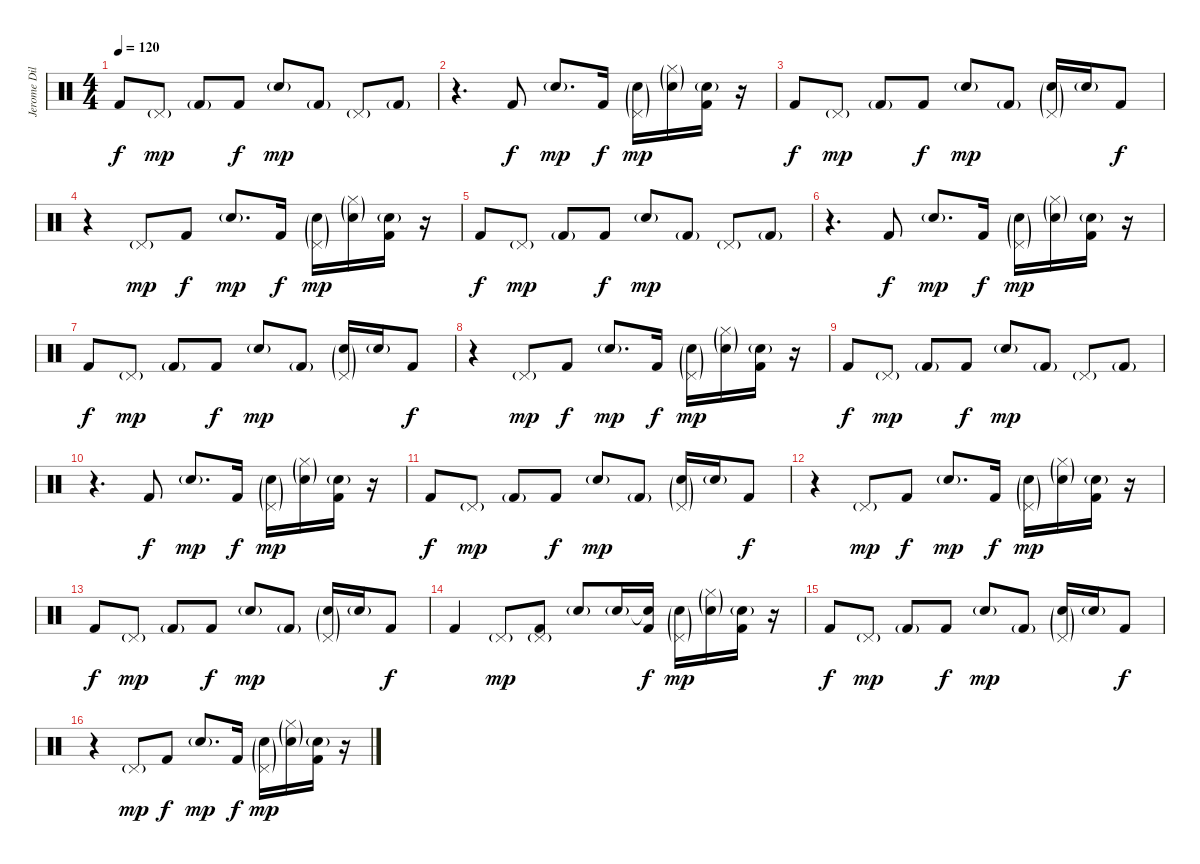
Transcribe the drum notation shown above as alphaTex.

\track ("Jerome Dillon" "Jerome Dil") {instrument percussion}
\staff {score}
\articulation defaults
\ts (4 4)
\tempo 120
\clef neutral
\ks c "Kick (hit) 2".8{dy f} "Pedal Hi-Hat (hit)"{g}.8{dy mp} "Kick (hit) 2"{g}.8 "Kick (hit) 2".8{dy f} "Electric Snare (hit)"{g}.8{dy mp} "Kick (hit) 2"{g}.8 "Pedal Hi-Hat (hit)"{g}.8 "Kick (hit) 2"{g}.8
|
r.4{d} "Kick (hit) 2".8{dy f} "Electric Snare (hit)"{g}.8{d dy mp} "Kick (hit) 2".16{dy f} ("Pedal Hi-Hat (hit)"{g} "Electric Snare (hit)"{g}).16{dy mp} ("Hi-Hat (closed)"{g} "Electric Snare (hit)"{g}).16 ("Electric Snare (hit)"{g} "Kick (hit) 2").16 r.16 |
"Kick (hit) 2".8{dy f} "Pedal Hi-Hat (hit)"{g}.8{dy mp} "Kick (hit) 2"{g}.8 "Kick (hit) 2".8{dy f} "Electric Snare (hit)"{g}.8{dy mp} "Kick (hit) 2"{g}.8 ("Pedal Hi-Hat (hit)"{g} "Electric Snare (hit)"{g}).16 "Electric Snare (hit)"{g}.16 "Kick (hit) 2".8{dy f} |
r.4 "Pedal Hi-Hat (hit)"{g}.8{dy mp} "Kick (hit) 2".8{dy f} "Electric Snare (hit)"{g}.8{d dy mp} "Kick (hit) 2".16{dy f} ("Pedal Hi-Hat (hit)"{g} "Electric Snare (hit)"{g}).16{dy mp} ("Hi-Hat (closed)"{g} "Electric Snare (hit)"{g}).16 ("Electric Snare (hit)"{g} "Kick (hit) 2").16 r.16 |
"Kick (hit) 2".8{dy f} "Pedal Hi-Hat (hit)"{g}.8{dy mp} "Kick (hit) 2"{g}.8 "Kick (hit) 2".8{dy f} "Electric Snare (hit)"{g}.8{dy mp} "Kick (hit) 2"{g}.8 "Pedal Hi-Hat (hit)"{g}.8 "Kick (hit) 2"{g}.8 |
r.4{d} "Kick (hit) 2".8{dy f} "Electric Snare (hit)"{g}.8{d dy mp} "Kick (hit) 2".16{dy f} ("Pedal Hi-Hat (hit)"{g} "Electric Snare (hit)"{g}).16{dy mp} ("Hi-Hat (closed)"{g} "Electric Snare (hit)"{g}).16 ("Electric Snare (hit)"{g} "Kick (hit) 2").16 r.16 |
"Kick (hit) 2".8{dy f} "Pedal Hi-Hat (hit)"{g}.8{dy mp} "Kick (hit) 2"{g}.8 "Kick (hit) 2".8{dy f} "Electric Snare (hit)"{g}.8{dy mp} "Kick (hit) 2"{g}.8 ("Pedal Hi-Hat (hit)"{g} "Electric Snare (hit)"{g}).16 "Electric Snare (hit)"{g}.16 "Kick (hit) 2".8{dy f} |
r.4 "Pedal Hi-Hat (hit)"{g}.8{dy mp} "Kick (hit) 2".8{dy f} "Electric Snare (hit)"{g}.8{d dy mp} "Kick (hit) 2".16{dy f} ("Pedal Hi-Hat (hit)"{g} "Electric Snare (hit)"{g}).16{dy mp} ("Hi-Hat (closed)"{g} "Electric Snare (hit)"{g}).16 ("Electric Snare (hit)"{g} "Kick (hit) 2").16 r.16 |
"Kick (hit) 2".8{dy f} "Pedal Hi-Hat (hit)"{g}.8{dy mp} "Kick (hit) 2"{g}.8 "Kick (hit) 2".8{dy f} "Electric Snare (hit)"{g}.8{dy mp} "Kick (hit) 2"{g}.8 "Pedal Hi-Hat (hit)"{g}.8 "Kick (hit) 2"{g}.8 |
r.4{d} "Kick (hit) 2".8{dy f} "Electric Snare (hit)"{g}.8{d dy mp} "Kick (hit) 2".16{dy f} ("Pedal Hi-Hat (hit)"{g} "Electric Snare (hit)"{g}).16{dy mp} ("Hi-Hat (closed)"{g} "Electric Snare (hit)"{g}).16 ("Electric Snare (hit)"{g} "Kick (hit) 2").16 r.16 |
"Kick (hit) 2".8{dy f} "Pedal Hi-Hat (hit)"{g}.8{dy mp} "Kick (hit) 2"{g}.8 "Kick (hit) 2".8{dy f} "Electric Snare (hit)"{g}.8{dy mp} "Kick (hit) 2"{g}.8 ("Pedal Hi-Hat (hit)"{g} "Electric Snare (hit)"{g}).16 "Electric Snare (hit)"{g}.16 "Kick (hit) 2".8{dy f} |
r.4 "Pedal Hi-Hat (hit)"{g}.8{dy mp} "Kick (hit) 2".8{dy f} "Electric Snare (hit)"{g}.8{d dy mp} "Kick (hit) 2".16{dy f} ("Pedal Hi-Hat (hit)"{g} "Electric Snare (hit)"{g}).16{dy mp} ("Hi-Hat (closed)"{g} "Electric Snare (hit)"{g}).16 ("Electric Snare (hit)"{g} "Kick (hit) 2").16 r.16 |
"Kick (hit) 2".8{dy f} "Pedal Hi-Hat (hit)"{g}.8{dy mp} "Kick (hit) 2"{g}.8 "Kick (hit) 2".8{dy f} "Electric Snare (hit)"{g}.8{dy mp} "Kick (hit) 2"{g}.8 ("Pedal Hi-Hat (hit)"{g} "Electric Snare (hit)"{g}).16 "Electric Snare (hit)"{g}.16 "Kick (hit) 2".8{dy f} |
"Kick (hit) 2".4 "Pedal Hi-Hat (hit)"{g}.8{dy mp} ("Pedal Hi-Hat (hit)"{g} "Kick (hit) 2").8 "Electric Snare (hit)"{g}.8 "Snare (hit) 2"{g}.16 ("Snare (hit)"{t} "Kick (hit) 2").16{dy f} ("Pedal Hi-Hat (hit)"{g} "Electric Snare (hit)"{g}).16{dy mp} ("Hi-Hat (closed)"{g} "Electric Snare (hit)"{g}).16 ("Electric Snare (hit)"{g} "Kick (hit) 2").16 r.16 |
"Kick (hit) 2".8{dy f} "Pedal Hi-Hat (hit)"{g}.8{dy mp} "Kick (hit) 2"{g}.8 "Kick (hit) 2".8{dy f} "Electric Snare (hit)"{g}.8{dy mp} "Kick (hit) 2"{g}.8 ("Pedal Hi-Hat (hit)"{g} "Electric Snare (hit)"{g}).16 "Electric Snare (hit)"{g}.16 "Kick (hit) 2".8{dy f} |
r.4 "Pedal Hi-Hat (hit)"{g}.8{dy mp} "Kick (hit) 2".8{dy f} "Electric Snare (hit)"{g}.8{d dy mp} "Kick (hit) 2".16{dy f} ("Pedal Hi-Hat (hit)"{g} "Electric Snare (hit)"{g}).16{dy mp} ("Hi-Hat (closed)"{g} "Electric Snare (hit)"{g}).16 ("Electric Snare (hit)"{g} "Kick (hit) 2").16 r.16
